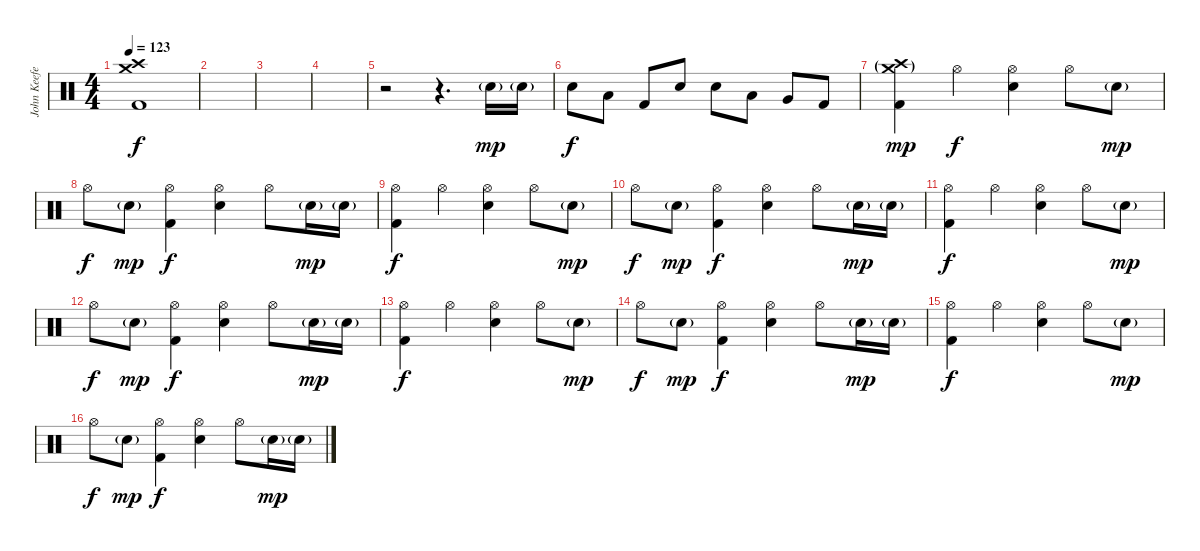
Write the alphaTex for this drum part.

\track ("John Keefe - Drums" "John Keefe") {instrument percussion}
\staff {score}
\articulation defaults
\ts (4 4)
\tempo 123
\clef neutral
\ks c
("Crash high (hit)" "Crash medium (hit)" "Kick (hit) 2").1{dy f} |
|
|
|
r.2 r.4{d} "Snare (hit) 2"{g}.16{dy mp} "Snare (hit) 2"{g}.16 |
"Snare (hit) 2".8{dy f} "Low Tom (hit)".8 "Kick (hit) 2".8 "Snare (hit) 2".8 "Snare (hit) 2".8 "Low Tom (hit)".8 "Very Low Tom (hit)".8 "Kick (hit) 2".8 |
("Crash high (hit)"{g} "Crash medium (hit)"{g} "Kick (hit) 2").4{dy mp} "Hi-Hat (open)".4{dy f} ("Hi-Hat (open)" "Snare (hit) 2").4 "Hi-Hat (open)".8 "Snare (hit) 2"{g}.8{dy mp} |
"Hi-Hat (open)".8{dy f} "Snare (hit) 2"{g}.8{dy mp} ("Hi-Hat (open)" "Kick (hit) 2").4{dy f} ("Hi-Hat (open)" "Snare (hit) 2").4 "Hi-Hat (open)".8 "Snare (hit) 2"{g}.16{dy mp} "Snare (hit) 2"{g}.16 |
("Hi-Hat (open)" "Kick (hit) 2").4{dy f} "Hi-Hat (open)".4 ("Hi-Hat (open)" "Snare (hit) 2").4 "Hi-Hat (open)".8 "Snare (hit) 2"{g}.8{dy mp} |
"Hi-Hat (open)".8{dy f} "Snare (hit) 2"{g}.8{dy mp} ("Hi-Hat (open)" "Kick (hit) 2").4{dy f} ("Hi-Hat (open)" "Snare (hit) 2").4 "Hi-Hat (open)".8 "Snare (hit) 2"{g}.16{dy mp} "Snare (hit) 2"{g}.16 |
("Hi-Hat (open)" "Kick (hit) 2").4{dy f} "Hi-Hat (open)".4 ("Hi-Hat (open)" "Snare (hit) 2").4 "Hi-Hat (open)".8 "Snare (hit) 2"{g}.8{dy mp} |
"Hi-Hat (open)".8{dy f} "Snare (hit) 2"{g}.8{dy mp} ("Hi-Hat (open)" "Kick (hit) 2").4{dy f} ("Hi-Hat (open)" "Snare (hit) 2").4 "Hi-Hat (open)".8 "Snare (hit) 2"{g}.16{dy mp} "Snare (hit) 2"{g}.16 |
("Hi-Hat (open)" "Kick (hit) 2").4{dy f} "Hi-Hat (open)".4 ("Hi-Hat (open)" "Snare (hit) 2").4 "Hi-Hat (open)".8 "Snare (hit) 2"{g}.8{dy mp} |
"Hi-Hat (open)".8{dy f} "Snare (hit) 2"{g}.8{dy mp} ("Hi-Hat (open)" "Kick (hit) 2").4{dy f} ("Hi-Hat (open)" "Snare (hit) 2").4 "Hi-Hat (open)".8 "Snare (hit) 2"{g}.16{dy mp} "Snare (hit) 2"{g}.16 |
("Hi-Hat (open)" "Kick (hit) 2").4{dy f} "Hi-Hat (open)".4 ("Hi-Hat (open)" "Snare (hit) 2").4 "Hi-Hat (open)".8 "Snare (hit) 2"{g}.8{dy mp} |
"Hi-Hat (open)".8{dy f} "Snare (hit) 2"{g}.8{dy mp} ("Hi-Hat (open)" "Kick (hit) 2").4{dy f} ("Hi-Hat (open)" "Snare (hit) 2").4 "Hi-Hat (open)".8 "Snare (hit) 2"{g}.16{dy mp} "Snare (hit) 2"{g}.16
